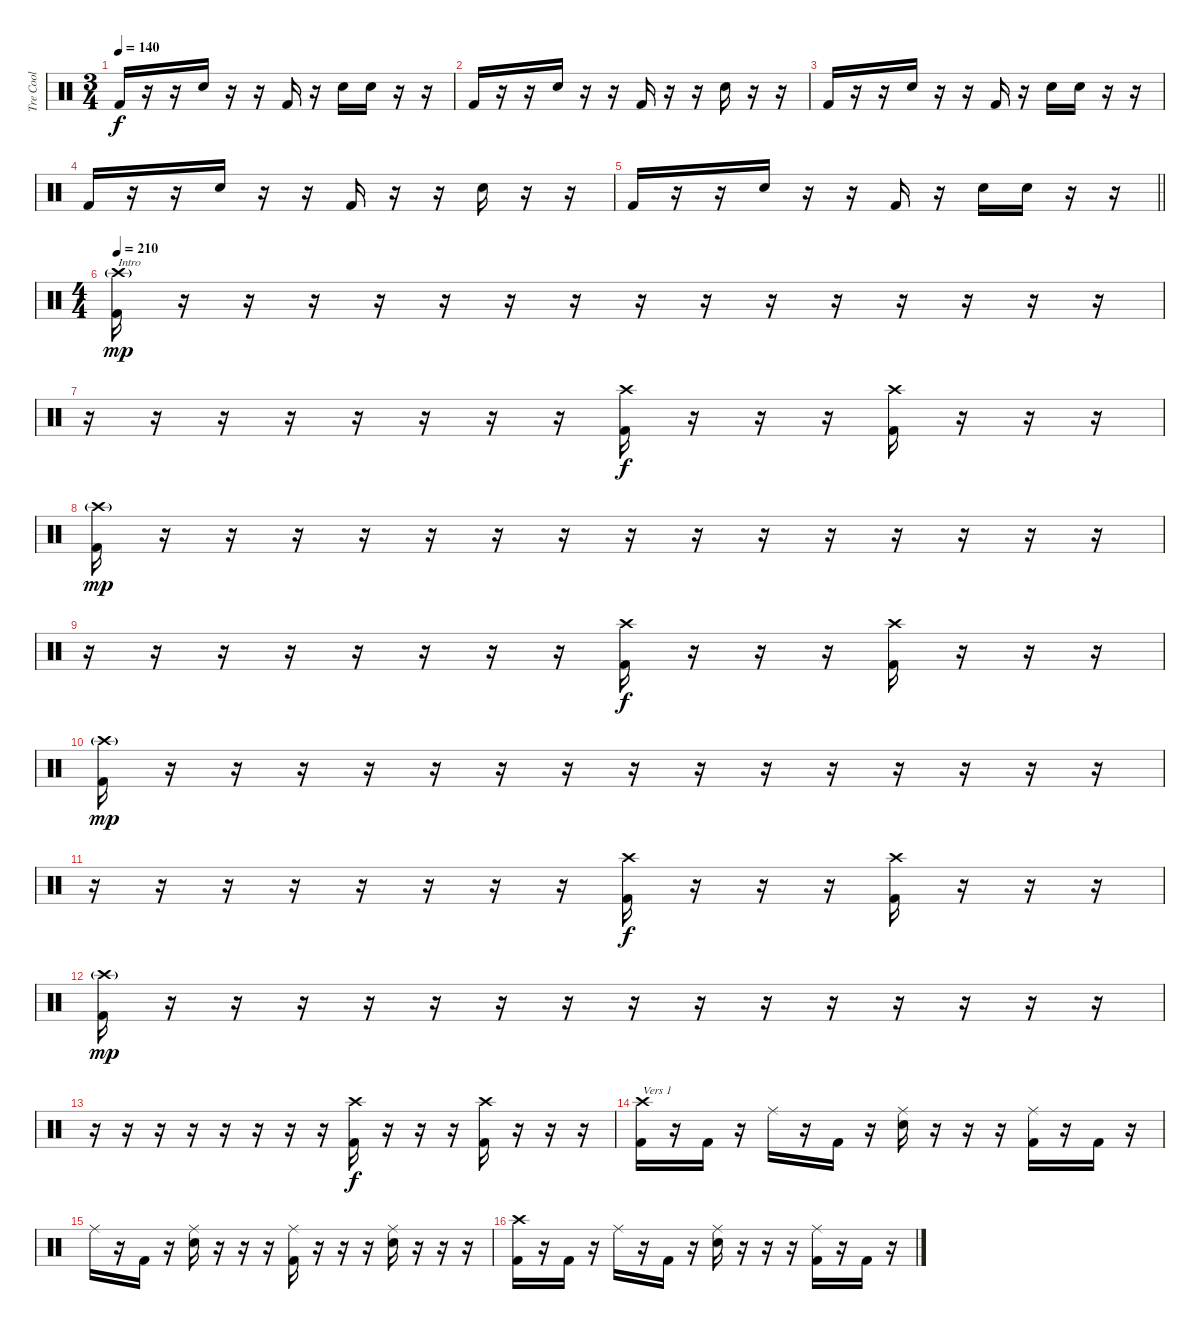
\track ("Tre Cool" "Tre Cool") {instrument percussion}
\staff {score}
\articulation defaults
\ts (3 4)
\tempo 140
\clef neutral
\ks c "Kick (hit) 2".16{dy f}
r.16 r.16 "Snare (hit) 2".16 r.16 r.16 "Kick (hit) 2".16 r.16 "Snare (hit) 2".16 "Snare (hit) 2".16 r.16 r.16 |
"Kick (hit) 2".16 r.16 r.16 "Snare (hit) 2".16 r.16 r.16 "Kick (hit) 2".16 r.16 r.16 "Snare (hit) 2".16 r.16 r.16 |
"Kick (hit) 2".16 r.16 r.16 "Snare (hit) 2".16 r.16 r.16 "Kick (hit) 2".16 r.16 "Snare (hit) 2".16 "Snare (hit) 2".16 r.16 r.16 |
"Kick (hit) 2".16 r.16 r.16 "Snare (hit) 2".16 r.16 r.16 "Kick (hit) 2".16 r.16 r.16 "Snare (hit) 2".16 r.16 r.16 |
\barLineRight lightlight "Kick (hit) 2".16
r.16 r.16 "Snare (hit) 2".16 r.16 r.16 "Kick (hit) 2".16 r.16 "Snare (hit) 2".16 "Snare (hit) 2".16 r.16 r.16 |
\ts (4 4)
\tempo 210
("Crash high (hit)"{g} "Kick (hit) 2").16{txt "Intro" dy mp} r.16 r.16 r.16 r.16 r.16 r.16 r.16 r.16 r.16 r.16 r.16 r.16 r.16 r.16 r.16 |
r.16 r.16 r.16 r.16 r.16 r.16 r.16 r.16 ("Crash high (hit)" "Kick (hit) 2").16{dy f} r.16 r.16 r.16 ("Crash high (hit)" "Kick (hit) 2").16 r.16 r.16 r.16 |
("Crash high (hit)"{g} "Kick (hit) 2").16{dy mp} r.16 r.16 r.16 r.16 r.16 r.16 r.16 r.16 r.16 r.16 r.16 r.16 r.16 r.16 r.16 |
r.16 r.16 r.16 r.16 r.16 r.16 r.16 r.16 ("Crash high (hit)" "Kick (hit) 2").16{dy f} r.16 r.16 r.16 ("Crash high (hit)" "Kick (hit) 2").16 r.16 r.16 r.16 |
("Crash high (hit)"{g} "Kick (hit) 2").16{dy mp} r.16 r.16 r.16 r.16 r.16 r.16 r.16 r.16 r.16 r.16 r.16 r.16 r.16 r.16 r.16 |
r.16 r.16 r.16 r.16 r.16 r.16 r.16 r.16 ("Crash high (hit)" "Kick (hit) 2").16{dy f} r.16 r.16 r.16 ("Crash high (hit)" "Kick (hit) 2").16 r.16 r.16 r.16 |
("Crash high (hit)"{g} "Kick (hit) 2").16{dy mp} r.16 r.16 r.16 r.16 r.16 r.16 r.16 r.16 r.16 r.16 r.16 r.16 r.16 r.16 r.16 |
r.16 r.16 r.16 r.16 r.16 r.16 r.16 r.16 ("Crash high (hit)" "Kick (hit) 2").16{dy f} r.16 r.16 r.16 ("Crash high (hit)" "Kick (hit) 2").16 r.16 r.16 r.16 |
("Crash high (hit)" "Kick (hit) 2").16{txt "Vers 1"} r.16 "Kick (hit) 2".16 r.16 "Ride (middle)".16 r.16 "Kick (hit) 2".16 r.16 ("Ride (middle)" "Snare (hit) 2").16 r.16 r.16 r.16 ("Ride (middle)" "Kick (hit) 2").16 r.16 "Kick (hit) 2".16 r.16 |
"Ride (middle)".16 r.16 "Kick (hit) 2".16 r.16 ("Ride (middle)" "Snare (hit) 2").16 r.16 r.16 r.16 ("Ride (middle)" "Kick (hit) 2").16 r.16 r.16 r.16 ("Ride (middle)" "Snare (hit) 2").16 r.16 r.16 r.16 |
("Crash high (hit)" "Kick (hit) 2").16 r.16 "Kick (hit) 2".16 r.16 "Ride (middle)".16 r.16 "Kick (hit) 2".16 r.16 ("Ride (middle)" "Snare (hit) 2").16 r.16 r.16 r.16 ("Ride (middle)" "Kick (hit) 2").16 r.16 "Kick (hit) 2".16 r.16
